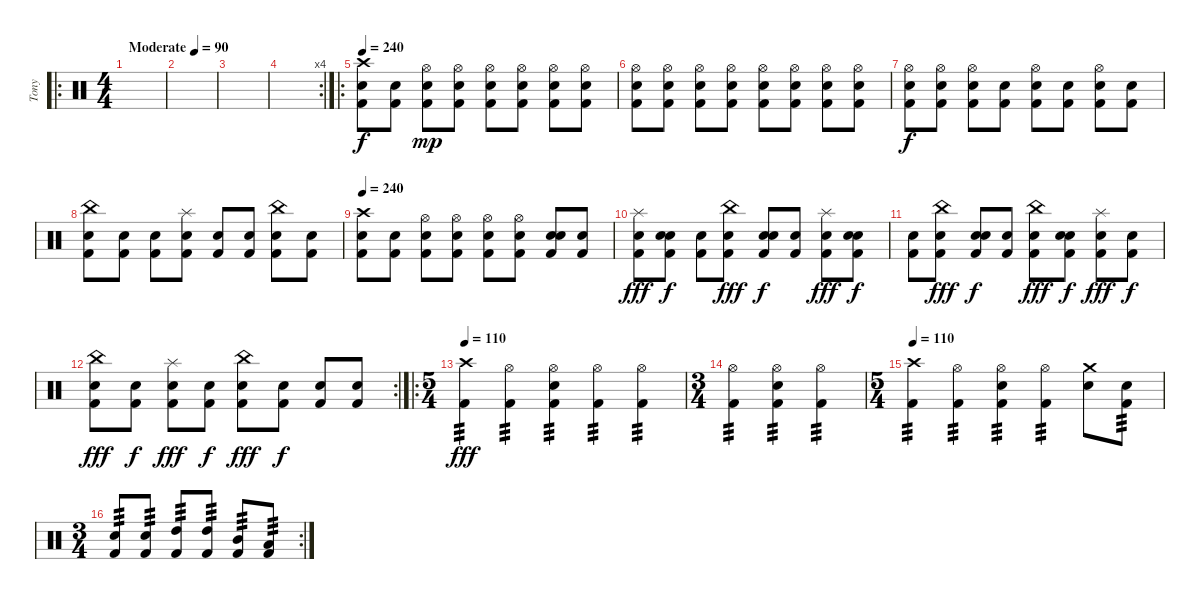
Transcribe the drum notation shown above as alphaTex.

\track ("Tony" "Tony") {instrument percussion}
\staff {score}
\articulation defaults
\ro
\ts (4 4)
\tempo (90 "Moderate")
\clef neutral
\ks c
|
|
|
\rc 4
|
\ro
\tempo 240
("Crash high (hit)" "Snare (hit) 2" "Kick (hit) 2").8 ("Snare (hit) 2" "Kick (hit) 2").8 ("Hi-Hat (open)" "Snare (hit) 2" "Kick (hit) 2").8{dy mp} ("Hi-Hat (open)" "Snare (hit) 2" "Kick (hit) 2").8 ("Hi-Hat (open)" "Snare (hit) 2" "Kick (hit) 2").8 ("Hi-Hat (open)" "Snare (hit) 2" "Kick (hit) 2").8 ("Hi-Hat (open)" "Snare (hit) 2" "Kick (hit) 2").8 ("Hi-Hat (open)" "Snare (hit) 2" "Kick (hit) 2").8 |
("Hi-Hat (open)" "Snare (hit) 2" "Kick (hit) 2").8 ("Hi-Hat (open)" "Snare (hit) 2" "Kick (hit) 2").8 ("Hi-Hat (open)" "Snare (hit) 2" "Kick (hit) 2").8 ("Hi-Hat (open)" "Snare (hit) 2" "Kick (hit) 2").8 ("Hi-Hat (open)" "Snare (hit) 2" "Kick (hit) 2").8 ("Hi-Hat (open)" "Snare (hit) 2" "Kick (hit) 2").8 ("Hi-Hat (open)" "Snare (hit) 2" "Kick (hit) 2").8 ("Hi-Hat (open)" "Snare (hit) 2" "Kick (hit) 2").8 |
("Hi-Hat (open)" "Snare (hit) 2" "Kick (hit) 2").8{dy f} ("Hi-Hat (open)" "Snare (hit) 2" "Kick (hit) 2").8 ("Hi-Hat (open)" "Snare (hit) 2" "Kick (hit) 2").8 ("Snare (hit) 2" "Kick (hit) 2").8 ("Hi-Hat (open)" "Snare (hit) 2" "Kick (hit) 2").8 ("Snare (hit) 2" "Kick (hit) 2").8 ("Hi-Hat (open)" "Snare (hit) 2" "Kick (hit) 2").8 ("Snare (hit) 2" "Kick (hit) 2").8 |
("China (hit)" "Snare (hit) 2" "Kick (hit) 2").8 ("Snare (hit) 2" "Kick (hit) 2").8 ("Snare (hit) 2" "Kick (hit) 2").8 ("Splash (hit)" "Snare (hit) 2" "Kick (hit) 2").8 ("Snare (hit) 2" "Kick (hit) 2").8 ("Snare (hit) 2" "Kick (hit) 2").8 ("China (hit)" "Snare (hit) 2" "Kick (hit) 2").8 ("Snare (hit) 2" "Kick (hit) 2").8 |
\tempo 240
("Crash high (hit)" "Snare (hit) 2" "Kick (hit) 2").8 ("Snare (hit) 2" "Kick (hit) 2").8 ("Hi-Hat (open)" "Snare (hit) 2" "Kick (hit) 2").8 ("Hi-Hat (open)" "Snare (hit) 2" "Kick (hit) 2").8 ("Hi-Hat (open)" "Snare (hit) 2" "Kick (hit) 2").8 ("Hi-Hat (open)" "Snare (hit) 2" "Kick (hit) 2").8 ("Snare (hit)" "Snare (hit) 2" "Kick (hit) 2").8 ("Snare (hit) 2" "Kick (hit) 2").8 |
("Splash (hit)" "Snare (hit) 2" "Kick (hit) 2").8{dy fff} ("Snare (hit)" "Snare (hit) 2" "Kick (hit) 2").8{dy f} ("Snare (hit) 2" "Kick (hit) 2").8 ("China (hit)" "Snare (hit) 2" "Kick (hit) 2").8{dy fff} ("Snare (hit)" "Snare (hit) 2" "Kick (hit) 2").8{dy f} ("Snare (hit) 2" "Kick (hit) 2").8 ("Splash (hit)" "Snare (hit) 2" "Kick (hit) 2").8{dy fff} ("Snare (hit)" "Snare (hit) 2" "Kick (hit) 2").8{dy f} |
("Snare (hit) 2" "Kick (hit) 2").8 ("China (hit)" "Snare (hit) 2" "Kick (hit) 2").8{dy fff} ("Snare (hit)" "Snare (hit) 2" "Kick (hit) 2").8{dy f} ("Snare (hit) 2" "Kick (hit) 2").8 ("China (hit)" "Snare (hit) 2" "Kick (hit) 2").8{dy fff} ("Snare (hit)" "Snare (hit) 2" "Kick (hit) 2").8{dy f} ("Splash (hit)" "Snare (hit) 2" "Kick (hit) 2").8{dy fff} ("Snare (hit) 2" "Kick (hit) 2").8{dy f} |
\rc 2
("China (hit)" "Snare (hit) 2" "Kick (hit) 2").8{dy fff} ("Snare (hit) 2" "Kick (hit) 2").8{dy f} ("Splash (hit)" "Snare (hit) 2" "Kick (hit) 2").8{dy fff} ("Snare (hit) 2" "Kick (hit) 2").8{dy f} ("China (hit)" "Snare (hit) 2" "Kick (hit) 2").8{dy fff} ("Snare (hit) 2" "Kick (hit) 2").8{dy f} ("Snare (hit) 2" "Kick (hit) 2").8 ("Snare (hit) 2" "Kick (hit) 2").8 |
\ro
\ts (5 4)
\tempo 110
("Crash high (hit)" "Kick (hit) 2").4{tp 3 dy fff} ("Hi-Hat (open)" "Kick (hit) 2").4{tp 3} ("Hi-Hat (open)" "Snare (hit) 2" "Kick (hit) 2").4{tp 3} ("Hi-Hat (open)" "Kick (hit) 2").4{tp 3} ("Hi-Hat (open)" "Kick (hit) 2").4{tp 3} |
\ts (3 4)
("Hi-Hat (open)" "Kick (hit) 2").4{tp 3} ("Hi-Hat (open)" "Snare (hit) 2" "Kick (hit) 2").4{tp 3} ("Hi-Hat (open)" "Kick (hit) 2").4{tp 3} |
\ts (5 4)
\tempo 110
("Crash high (hit)" "Kick (hit) 2").4{tp 3} ("Hi-Hat (open)" "Kick (hit) 2").4{tp 3} ("Hi-Hat (open)" "Snare (hit) 2" "Kick (hit) 2").4{tp 3} ("Hi-Hat (open)" "Kick (hit) 2").4{tp 3} ("Crash medium (hit)" "Snare (hit) 2").8 ("Snare (hit) 2" "Kick (hit) 2").8{tp 3} |
\rc 2
\ts (3 4)
("Snare (hit) 2" "Kick (hit) 2").8{tp 3} ("Snare (hit) 2" "Kick (hit) 2").8{tp 3} ("High Tom (hit)" "Kick (hit) 2").8{tp 3} ("High Tom (hit)" "Kick (hit) 2").8{tp 3} ("Mid Tom (hit)" "Kick (hit) 2").8{tp 3} ("Low Tom (hit)" "Kick (hit) 2").8{tp 3}
